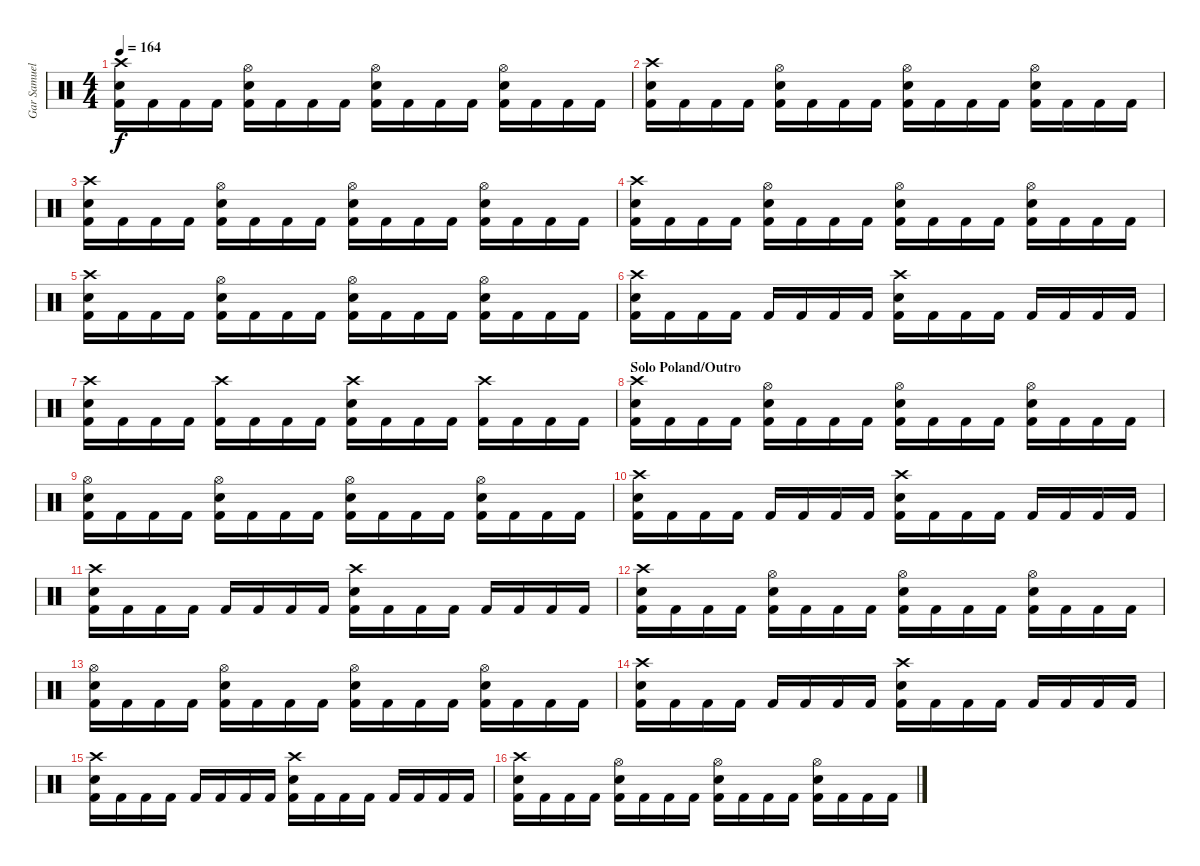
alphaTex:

\track ("Gar Samuelson (Drums)" "Gar Samuel") {instrument percussion}
\staff {score}
\articulation defaults
\ts (4 4)
\tempo 164
\clef neutral
\ks c
("Crash high (hit)" "Electric Snare (hit)" "Kick (hit) 2").16{dy f} "Kick (hit) 2".16 "Kick (hit) 2".16 "Kick (hit) 2".16 ("Hi-Hat (open)" "Electric Snare (hit)" "Kick (hit) 2").16 "Kick (hit) 2".16 "Kick (hit) 2".16 "Kick (hit) 2".16 ("Hi-Hat (open)" "Electric Snare (hit)" "Kick (hit) 2").16 "Kick (hit) 2".16 "Kick (hit) 2".16 "Kick (hit) 2".16 ("Hi-Hat (open)" "Electric Snare (hit)" "Kick (hit) 2").16 "Kick (hit) 2".16 "Kick (hit) 2".16 "Kick (hit) 2".16 |
("Crash high (hit)" "Electric Snare (hit)" "Kick (hit) 2").16 "Kick (hit) 2".16 "Kick (hit) 2".16 "Kick (hit) 2".16 ("Hi-Hat (open)" "Electric Snare (hit)" "Kick (hit) 2").16 "Kick (hit) 2".16 "Kick (hit) 2".16 "Kick (hit) 2".16 ("Hi-Hat (open)" "Electric Snare (hit)" "Kick (hit) 2").16 "Kick (hit) 2".16 "Kick (hit) 2".16 "Kick (hit) 2".16 ("Hi-Hat (open)" "Electric Snare (hit)" "Kick (hit) 2").16 "Kick (hit) 2".16 "Kick (hit) 2".16 "Kick (hit) 2".16 |
("Crash high (hit)" "Electric Snare (hit)" "Kick (hit) 2").16 "Kick (hit) 2".16 "Kick (hit) 2".16 "Kick (hit) 2".16 ("Hi-Hat (open)" "Electric Snare (hit)" "Kick (hit) 2").16 "Kick (hit) 2".16 "Kick (hit) 2".16 "Kick (hit) 2".16 ("Hi-Hat (open)" "Electric Snare (hit)" "Kick (hit) 2").16 "Kick (hit) 2".16 "Kick (hit) 2".16 "Kick (hit) 2".16 ("Hi-Hat (open)" "Electric Snare (hit)" "Kick (hit) 2").16 "Kick (hit) 2".16 "Kick (hit) 2".16 "Kick (hit) 2".16 |
("Crash high (hit)" "Electric Snare (hit)" "Kick (hit) 2").16 "Kick (hit) 2".16 "Kick (hit) 2".16 "Kick (hit) 2".16 ("Hi-Hat (open)" "Electric Snare (hit)" "Kick (hit) 2").16 "Kick (hit) 2".16 "Kick (hit) 2".16 "Kick (hit) 2".16 ("Hi-Hat (open)" "Electric Snare (hit)" "Kick (hit) 2").16 "Kick (hit) 2".16 "Kick (hit) 2".16 "Kick (hit) 2".16 ("Hi-Hat (open)" "Electric Snare (hit)" "Kick (hit) 2").16 "Kick (hit) 2".16 "Kick (hit) 2".16 "Kick (hit) 2".16 |
("Crash high (hit)" "Electric Snare (hit)" "Kick (hit) 2").16 "Kick (hit) 2".16 "Kick (hit) 2".16 "Kick (hit) 2".16 ("Hi-Hat (open)" "Electric Snare (hit)" "Kick (hit) 2").16 "Kick (hit) 2".16 "Kick (hit) 2".16 "Kick (hit) 2".16 ("Hi-Hat (open)" "Electric Snare (hit)" "Kick (hit) 2").16 "Kick (hit) 2".16 "Kick (hit) 2".16 "Kick (hit) 2".16 ("Hi-Hat (open)" "Electric Snare (hit)" "Kick (hit) 2").16 "Kick (hit) 2".16 "Kick (hit) 2".16 "Kick (hit) 2".16 |
("Crash high (hit)" "Electric Snare (hit)" "Kick (hit) 2").16 "Kick (hit) 2".16 "Kick (hit) 2".16 "Kick (hit) 2".16 "Kick (hit) 2".16 "Kick (hit) 2".16 "Kick (hit) 2".16 "Kick (hit) 2".16 ("Crash high (hit)" "Electric Snare (hit)" "Kick (hit) 2").16 "Kick (hit) 2".16 "Kick (hit) 2".16 "Kick (hit) 2".16 "Kick (hit) 2".16 "Kick (hit) 2".16 "Kick (hit) 2".16 "Kick (hit) 2".16 |
("Crash high (hit)" "Electric Snare (hit)" "Kick (hit) 2").16 "Kick (hit) 2".16 "Kick (hit) 2".16 "Kick (hit) 2".16 ("Crash high (hit)" "Kick (hit) 2").16 "Kick (hit) 2".16 "Kick (hit) 2".16 "Kick (hit) 2".16 ("Crash high (hit)" "Electric Snare (hit)" "Kick (hit) 2").16 "Kick (hit) 2".16 "Kick (hit) 2".16 "Kick (hit) 2".16 ("Crash high (hit)" "Kick (hit) 2").16 "Kick (hit) 2".16 "Kick (hit) 2".16 "Kick (hit) 2".16 |
\section ("" "Solo Poland/Outro")
("Crash high (hit)" "Electric Snare (hit)" "Kick (hit) 2").16 "Kick (hit) 2".16 "Kick (hit) 2".16 "Kick (hit) 2".16 ("Hi-Hat (open)" "Electric Snare (hit)" "Kick (hit) 2").16 "Kick (hit) 2".16 "Kick (hit) 2".16 "Kick (hit) 2".16 ("Hi-Hat (open)" "Electric Snare (hit)" "Kick (hit) 2").16 "Kick (hit) 2".16 "Kick (hit) 2".16 "Kick (hit) 2".16 ("Hi-Hat (open)" "Electric Snare (hit)" "Kick (hit) 2").16 "Kick (hit) 2".16 "Kick (hit) 2".16 "Kick (hit) 2".16 |
("Hi-Hat (open)" "Electric Snare (hit)" "Kick (hit) 2").16 "Kick (hit) 2".16 "Kick (hit) 2".16 "Kick (hit) 2".16 ("Hi-Hat (open)" "Electric Snare (hit)" "Kick (hit) 2").16 "Kick (hit) 2".16 "Kick (hit) 2".16 "Kick (hit) 2".16 ("Hi-Hat (open)" "Electric Snare (hit)" "Kick (hit) 2").16 "Kick (hit) 2".16 "Kick (hit) 2".16 "Kick (hit) 2".16 ("Hi-Hat (open)" "Electric Snare (hit)" "Kick (hit) 2").16 "Kick (hit) 2".16 "Kick (hit) 2".16 "Kick (hit) 2".16 |
("Crash high (hit)" "Electric Snare (hit)" "Kick (hit) 2").16 "Kick (hit) 2".16 "Kick (hit) 2".16 "Kick (hit) 2".16 "Kick (hit) 2".16 "Kick (hit) 2".16 "Kick (hit) 2".16 "Kick (hit) 2".16 ("Crash high (hit)" "Electric Snare (hit)" "Kick (hit) 2").16 "Kick (hit) 2".16 "Kick (hit) 2".16 "Kick (hit) 2".16 "Kick (hit) 2".16 "Kick (hit) 2".16 "Kick (hit) 2".16 "Kick (hit) 2".16 |
("Crash high (hit)" "Electric Snare (hit)" "Kick (hit) 2").16 "Kick (hit) 2".16 "Kick (hit) 2".16 "Kick (hit) 2".16 "Kick (hit) 2".16 "Kick (hit) 2".16 "Kick (hit) 2".16 "Kick (hit) 2".16 ("Crash high (hit)" "Electric Snare (hit)" "Kick (hit) 2").16 "Kick (hit) 2".16 "Kick (hit) 2".16 "Kick (hit) 2".16 "Kick (hit) 2".16 "Kick (hit) 2".16 "Kick (hit) 2".16 "Kick (hit) 2".16 |
("Crash high (hit)" "Electric Snare (hit)" "Kick (hit) 2").16 "Kick (hit) 2".16 "Kick (hit) 2".16 "Kick (hit) 2".16 ("Hi-Hat (open)" "Electric Snare (hit)" "Kick (hit) 2").16 "Kick (hit) 2".16 "Kick (hit) 2".16 "Kick (hit) 2".16 ("Hi-Hat (open)" "Electric Snare (hit)" "Kick (hit) 2").16 "Kick (hit) 2".16 "Kick (hit) 2".16 "Kick (hit) 2".16 ("Hi-Hat (open)" "Electric Snare (hit)" "Kick (hit) 2").16 "Kick (hit) 2".16 "Kick (hit) 2".16 "Kick (hit) 2".16 |
("Hi-Hat (open)" "Electric Snare (hit)" "Kick (hit) 2").16 "Kick (hit) 2".16 "Kick (hit) 2".16 "Kick (hit) 2".16 ("Hi-Hat (open)" "Electric Snare (hit)" "Kick (hit) 2").16 "Kick (hit) 2".16 "Kick (hit) 2".16 "Kick (hit) 2".16 ("Hi-Hat (open)" "Electric Snare (hit)" "Kick (hit) 2").16 "Kick (hit) 2".16 "Kick (hit) 2".16 "Kick (hit) 2".16 ("Hi-Hat (open)" "Electric Snare (hit)" "Kick (hit) 2").16 "Kick (hit) 2".16 "Kick (hit) 2".16 "Kick (hit) 2".16 |
("Crash high (hit)" "Electric Snare (hit)" "Kick (hit) 2").16 "Kick (hit) 2".16 "Kick (hit) 2".16 "Kick (hit) 2".16 "Kick (hit) 2".16 "Kick (hit) 2".16 "Kick (hit) 2".16 "Kick (hit) 2".16 ("Crash high (hit)" "Electric Snare (hit)" "Kick (hit) 2").16 "Kick (hit) 2".16 "Kick (hit) 2".16 "Kick (hit) 2".16 "Kick (hit) 2".16 "Kick (hit) 2".16 "Kick (hit) 2".16 "Kick (hit) 2".16 |
("Crash high (hit)" "Electric Snare (hit)" "Kick (hit) 2").16 "Kick (hit) 2".16 "Kick (hit) 2".16 "Kick (hit) 2".16 "Kick (hit) 2".16 "Kick (hit) 2".16 "Kick (hit) 2".16 "Kick (hit) 2".16 ("Crash high (hit)" "Electric Snare (hit)" "Kick (hit) 2").16 "Kick (hit) 2".16 "Kick (hit) 2".16 "Kick (hit) 2".16 "Kick (hit) 2".16 "Kick (hit) 2".16 "Kick (hit) 2".16 "Kick (hit) 2".16 |
("Crash high (hit)" "Electric Snare (hit)" "Kick (hit) 2").16 "Kick (hit) 2".16 "Kick (hit) 2".16 "Kick (hit) 2".16 ("Hi-Hat (open)" "Electric Snare (hit)" "Kick (hit) 2").16 "Kick (hit) 2".16 "Kick (hit) 2".16 "Kick (hit) 2".16 ("Hi-Hat (open)" "Electric Snare (hit)" "Kick (hit) 2").16 "Kick (hit) 2".16 "Kick (hit) 2".16 "Kick (hit) 2".16 ("Hi-Hat (open)" "Electric Snare (hit)" "Kick (hit) 2").16 "Kick (hit) 2".16 "Kick (hit) 2".16 "Kick (hit) 2".16
